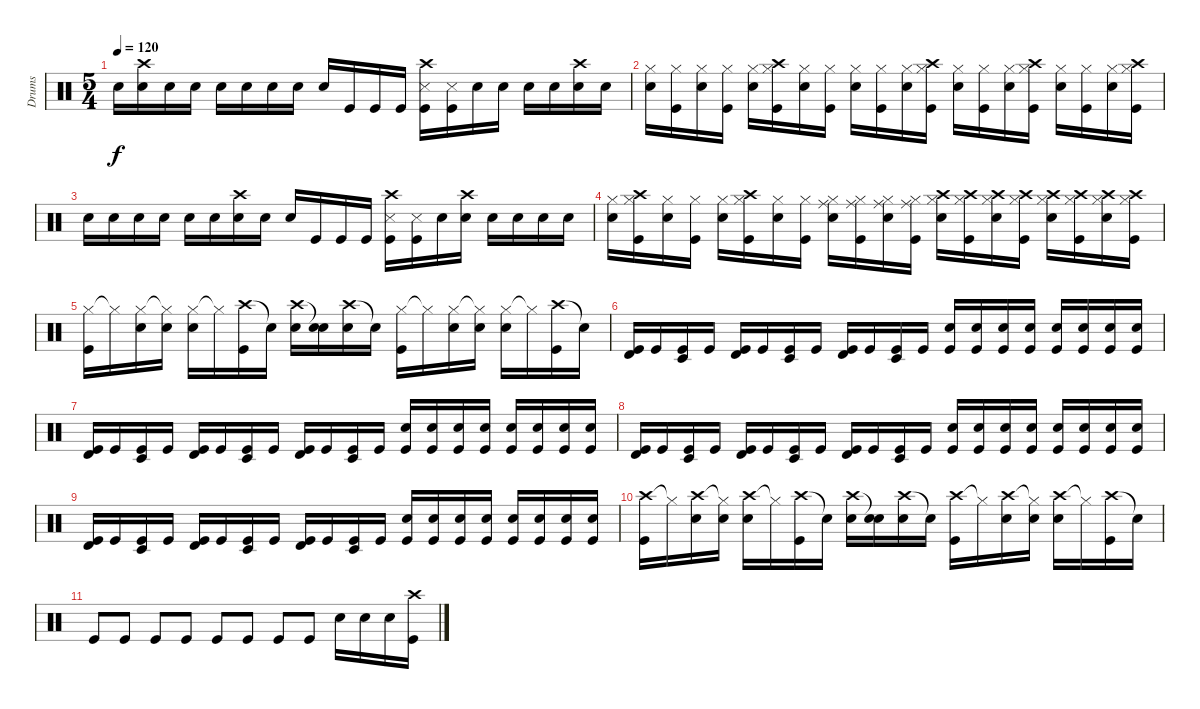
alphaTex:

\track ("Drums" "Drums") {instrument percussion}
\staff {score}
\articulation defaults
\ts (5 4)
\tempo 120
\clef neutral
\ks c "Snare (hit) 2".16{dy f}
("Crash high (hit)" "Snare (hit) 2").16 "Snare (hit) 2".16 "Snare (hit) 2".16 "Snare (hit) 2".16 "Snare (hit) 2".16 "Snare (hit) 2".16 "Snare (hit) 2".16 "Snare (hit) 2".16 "Kick (hit)".16 "Kick (hit)".16 "Kick (hit)".16 ("Crash high (hit)" "Snare (side stick) 3" "Kick (hit)").16 ("Snare (side stick) 3" "Kick (hit)").16 "Snare (hit) 2".16 "Snare (hit) 2".16 "Snare (hit) 2".16 "Snare (hit) 2".16 ("Crash high (hit)" "Snare (hit) 2").16 "Snare (hit) 2".16 |
("Hi-Hat (closed)" "Snare (hit) 2").16 ("Hi-Hat (closed)" "Kick (hit)").16 ("Hi-Hat (closed)" "Snare (hit) 2").16 ("Hi-Hat (closed)" "Kick (hit)").16 ("Hi-Hat (closed)" "Snare (hit) 2").16 ("Crash high (hit)" "Hi-Hat (closed)" "Kick (hit)").16 ("Hi-Hat (closed)" "Snare (hit) 2").16 ("Hi-Hat (closed)" "Kick (hit)").16 ("Hi-Hat (closed)" "Snare (hit) 2").16 ("Hi-Hat (closed)" "Kick (hit)").16 ("Hi-Hat (closed)" "Snare (hit) 2").16 ("Crash high (hit)" "Hi-Hat (closed)" "Kick (hit)").16 ("Hi-Hat (closed)" "Snare (hit) 2").16 ("Hi-Hat (closed)" "Kick (hit)").16 ("Hi-Hat (closed)" "Snare (hit) 2").16 ("Crash high (hit)" "Hi-Hat (closed)" "Kick (hit)").16 ("Hi-Hat (closed)" "Snare (hit) 2").16 ("Hi-Hat (closed)" "Kick (hit)").16 ("Hi-Hat (closed)" "Snare (hit) 2").16 ("Crash high (hit)" "Hi-Hat (closed)" "Kick (hit)").16 |
"Snare (hit) 2".16 "Snare (hit) 2".16 "Snare (hit) 2".16 "Snare (hit) 2".16 "Snare (hit) 2".16 "Snare (hit) 2".16 ("Crash high (hit)" "Snare (hit) 2").16 "Snare (hit) 2".16 "Snare (hit) 2".16 "Kick (hit)".16 "Kick (hit)".16 "Kick (hit)".16 ("Crash high (hit)" "Snare (side stick) 3" "Kick (hit)").16 ("Snare (side stick) 3" "Kick (hit)").16 "Snare (hit) 2".16 ("Crash high (hit)" "Snare (hit) 2").16 "Snare (hit) 2".16 "Snare (hit) 2".16 "Snare (hit) 2".16 "Snare (hit) 2".16 |
("Hi-Hat (closed)" "Snare (hit) 2").16 ("Crash high (hit)" "Hi-Hat (closed)" "Kick (hit)").16 ("Hi-Hat (closed)" "Snare (hit) 2").16 ("Hi-Hat (closed)" "Kick (hit)").16 ("Hi-Hat (closed)" "Snare (hit) 2").16 ("Crash high (hit)" "Hi-Hat (closed)" "Kick (hit)").16 ("Hi-Hat (closed)" "Snare (hit) 2").16 ("Hi-Hat (closed)" "Kick (hit)").16 ("Ride (middle)" "Hi-Hat (closed)" "Snare (hit) 2").16 ("Ride (middle)" "Hi-Hat (closed)" "Kick (hit)").16 ("Ride (middle)" "Hi-Hat (closed)" "Snare (hit) 2").16 ("Ride (middle)" "Hi-Hat (closed)" "Kick (hit)").16 ("Crash high (hit)" "Hi-Hat (closed)" "Snare (hit) 2").16 ("Crash high (hit)" "Hi-Hat (closed)" "Kick (hit)").16 ("Crash high (hit)" "Hi-Hat (closed)" "Snare (hit) 2").16 ("Crash high (hit)" "Hi-Hat (closed)" "Kick (hit)").16 ("Crash high (hit)" "Hi-Hat (closed)" "Snare (hit) 2").16 ("Crash high (hit)" "Hi-Hat (closed)" "Kick (hit)").16 ("Crash high (hit)" "Hi-Hat (closed)" "Snare (hit) 2").16 ("Crash high (hit)" "Hi-Hat (closed)" "Kick (hit)").16 |
("Hi-Hat (closed)" "Kick (hit)").16 "Hi-Hat (closed)"{t}.16 ("Hi-Hat (closed)" "Snare (hit) 2").16 ("Hi-Hat (closed)"{t} "Snare (hit) 2").16 ("Hi-Hat (closed)" "Snare (hit) 2").16 "Hi-Hat (closed)"{t}.16 ("Crash high (hit)" "Kick (hit)").16 "Snare (hit)"{t}.16 ("Crash high (hit)" "Snare (hit) 2").16 ("Snare (hit)"{t} "Snare (hit) 2").16 ("Crash high (hit)" "Snare (hit) 2").16 "Snare (hit)"{t}.16 ("Hi-Hat (closed)" "Kick (hit)").16 "Hi-Hat (closed)"{t}.16 ("Hi-Hat (closed)" "Snare (hit) 2").16 ("Hi-Hat (closed)"{t} "Snare (hit) 2").16 ("Hi-Hat (closed)" "Snare (hit) 2").16 "Hi-Hat (closed)"{t}.16 ("Crash high (hit)" "Kick (hit)").16 "Snare (hit)"{t}.16 |
("Timbale high (hit)" "Kick (hit)").16 "Kick (hit)".16 ("Timbale low (hit)" "Kick (hit)").16 "Kick (hit)".16 ("Timbale high (hit)" "Kick (hit)").16 "Kick (hit)".16 ("Timbale low (hit)" "Kick (hit)").16 "Kick (hit)".16 ("Timbale high (hit)" "Kick (hit)").16 "Kick (hit)".16 ("Timbale low (hit)" "Kick (hit)").16 "Kick (hit)".16 ("Snare (hit) 2" "Kick (hit)").16 ("Snare (hit) 2" "Kick (hit)").16 ("Snare (hit) 2" "Kick (hit)").16 ("Snare (hit) 2" "Kick (hit)").16 ("Snare (hit) 2" "Kick (hit)").16 ("Snare (hit) 2" "Kick (hit)").16 ("Snare (hit) 2" "Kick (hit)").16 ("Snare (hit) 2" "Kick (hit)").16 |
("Timbale high (hit)" "Kick (hit)").16 "Kick (hit)".16 ("Timbale low (hit)" "Kick (hit)").16 "Kick (hit)".16 ("Timbale high (hit)" "Kick (hit)").16 "Kick (hit)".16 ("Timbale low (hit)" "Kick (hit)").16 "Kick (hit)".16 ("Timbale high (hit)" "Kick (hit)").16 "Kick (hit)".16 ("Timbale low (hit)" "Kick (hit)").16 "Kick (hit)".16 ("Snare (hit) 2" "Kick (hit)").16 ("Snare (hit) 2" "Kick (hit)").16 ("Snare (hit) 2" "Kick (hit)").16 ("Snare (hit) 2" "Kick (hit)").16 ("Snare (hit) 2" "Kick (hit)").16 ("Snare (hit) 2" "Kick (hit)").16 ("Snare (hit) 2" "Kick (hit)").16 ("Snare (hit) 2" "Kick (hit)").16 |
("Timbale high (hit)" "Kick (hit)").16 "Kick (hit)".16 ("Timbale low (hit)" "Kick (hit)").16 "Kick (hit)".16 ("Timbale high (hit)" "Kick (hit)").16 "Kick (hit)".16 ("Timbale low (hit)" "Kick (hit)").16 "Kick (hit)".16 ("Timbale high (hit)" "Kick (hit)").16 "Kick (hit)".16 ("Timbale low (hit)" "Kick (hit)").16 "Kick (hit)".16 ("Snare (hit) 2" "Kick (hit)").16 ("Snare (hit) 2" "Kick (hit)").16 ("Snare (hit) 2" "Kick (hit)").16 ("Snare (hit) 2" "Kick (hit)").16 ("Snare (hit) 2" "Kick (hit)").16 ("Snare (hit) 2" "Kick (hit)").16 ("Snare (hit) 2" "Kick (hit)").16 ("Snare (hit) 2" "Kick (hit)").16 |
("Timbale high (hit)" "Kick (hit)").16 "Kick (hit)".16 ("Timbale low (hit)" "Kick (hit)").16 "Kick (hit)".16 ("Timbale high (hit)" "Kick (hit)").16 "Kick (hit)".16 ("Timbale low (hit)" "Kick (hit)").16 "Kick (hit)".16 ("Timbale high (hit)" "Kick (hit)").16 "Kick (hit)".16 ("Timbale low (hit)" "Kick (hit)").16 "Kick (hit)".16 ("Snare (hit) 2" "Kick (hit)").16 ("Snare (hit) 2" "Kick (hit)").16 ("Snare (hit) 2" "Kick (hit)").16 ("Snare (hit) 2" "Kick (hit)").16 ("Snare (hit) 2" "Kick (hit)").16 ("Snare (hit) 2" "Kick (hit)").16 ("Snare (hit) 2" "Kick (hit)").16 ("Snare (hit) 2" "Kick (hit)").16 |
("Crash high (hit)" "Kick (hit)").16 "Hi-Hat (closed)"{t}.16 ("Crash high (hit)" "Snare (hit) 2").16 ("Hi-Hat (closed)"{t} "Snare (hit) 2").16 ("Crash high (hit)" "Snare (hit) 2").16 "Hi-Hat (closed)"{t}.16 ("Crash high (hit)" "Kick (hit)").16 "Snare (hit)"{t}.16 ("Crash high (hit)" "Snare (hit) 2").16 ("Snare (hit)"{t} "Snare (hit) 2").16 ("Crash high (hit)" "Snare (hit) 2").16 "Snare (hit)"{t}.16 ("Crash high (hit)" "Kick (hit)").16 "Hi-Hat (closed)"{t}.16 ("Crash high (hit)" "Snare (hit) 2").16 ("Hi-Hat (closed)"{t} "Snare (hit) 2").16 ("Crash high (hit)" "Snare (hit) 2").16 "Hi-Hat (closed)"{t}.16 ("Crash high (hit)" "Kick (hit)").16 "Snare (hit)"{t}.16 |
"Kick (hit)".8 "Kick (hit)".8 "Kick (hit)".8 "Kick (hit)".8 "Kick (hit)".8 "Kick (hit)".8 "Kick (hit)".8 "Kick (hit)".8 "Snare (hit) 2".16 "Snare (hit) 2".16 "Snare (hit) 2".16 ("Crash high (hit)" "Kick (hit)").16
